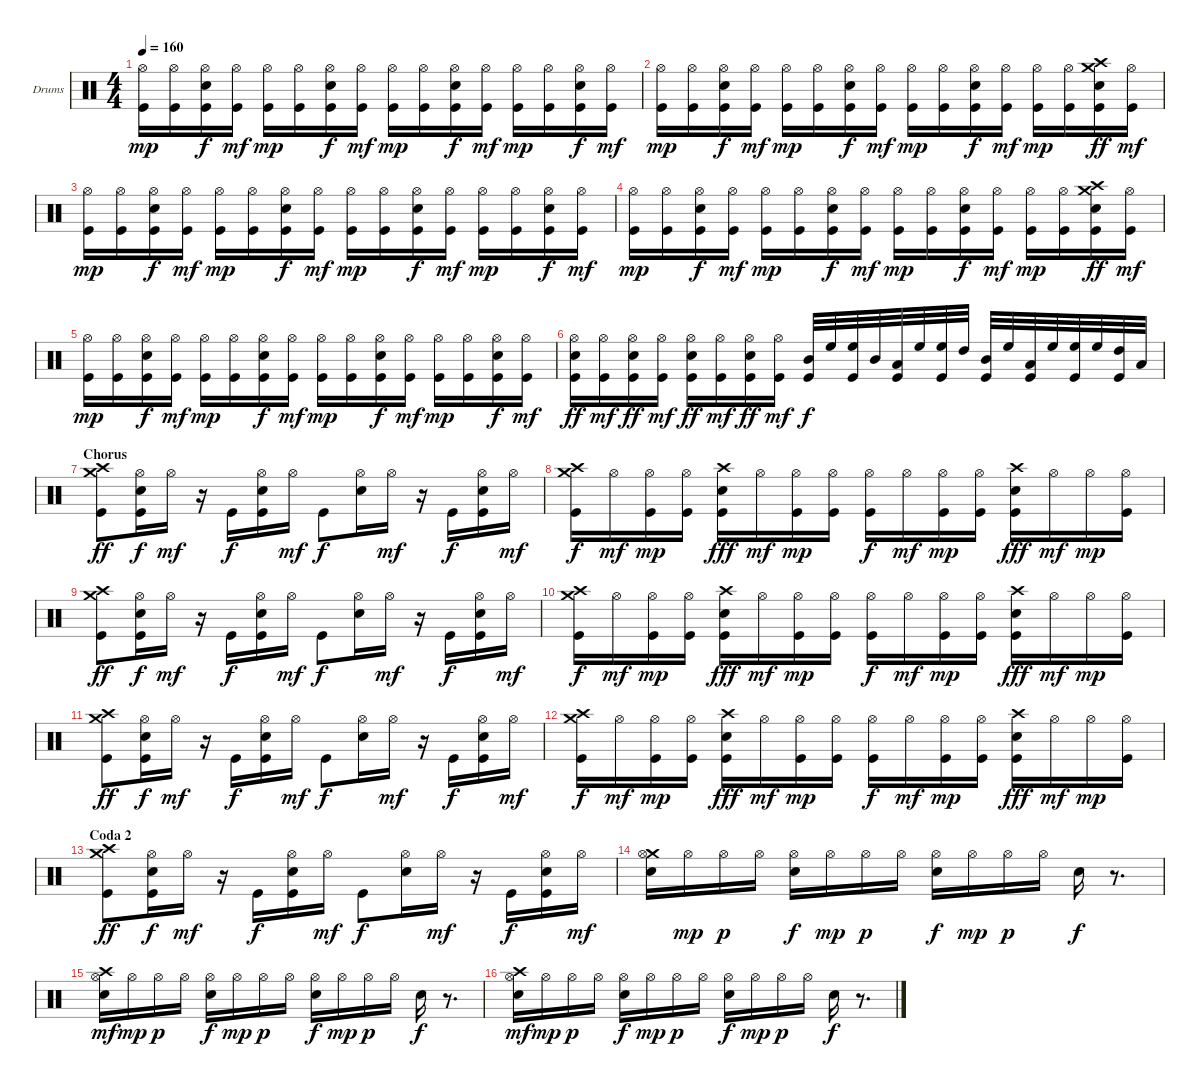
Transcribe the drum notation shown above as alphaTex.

\bracketExtendMode groupsimilarinstruments
\firstSystemTrackNameOrientation horizontal
\otherSystemsTrackNameOrientation horizontal
\track ("Drumkit" "Drums") {instrument percussion}
\staff {score}
\articulation defaults
\ts (4 4)
\tempo 160
\clef neutral
\ks c
("Hi-Hat (open)" "Kick (hit)").16{dy mp} ("Hi-Hat (open)" "Kick (hit)").16 ("Hi-Hat (open)" "Snare (hit) 2" "Kick (hit)").16{dy f} ("Hi-Hat (open)" "Kick (hit)").16{dy mf} ("Hi-Hat (open)" "Kick (hit)").16{dy mp} ("Hi-Hat (open)" "Kick (hit)").16 ("Hi-Hat (open)" "Snare (hit) 2" "Kick (hit)").16{dy f} ("Hi-Hat (open)" "Kick (hit)").16{dy mf} ("Hi-Hat (open)" "Kick (hit)").16{dy mp} ("Hi-Hat (open)" "Kick (hit)").16 ("Hi-Hat (open)" "Snare (hit) 2" "Kick (hit)").16{dy f} ("Hi-Hat (open)" "Kick (hit)").16{dy mf} ("Hi-Hat (open)" "Kick (hit)").16{dy mp} ("Hi-Hat (open)" "Kick (hit)").16 ("Hi-Hat (open)" "Snare (hit) 2" "Kick (hit)").16{dy f} ("Hi-Hat (open)" "Kick (hit)").16{dy mf} |
("Hi-Hat (open)" "Kick (hit)").16{dy mp} ("Hi-Hat (open)" "Kick (hit)").16 ("Hi-Hat (open)" "Snare (hit) 2" "Kick (hit)").16{dy f} ("Hi-Hat (open)" "Kick (hit)").16{dy mf} ("Hi-Hat (open)" "Kick (hit)").16{dy mp} ("Hi-Hat (open)" "Kick (hit)").16 ("Hi-Hat (open)" "Snare (hit) 2" "Kick (hit)").16{dy f} ("Hi-Hat (open)" "Kick (hit)").16{dy mf} ("Hi-Hat (open)" "Kick (hit)").16{dy mp} ("Hi-Hat (open)" "Kick (hit)").16 ("Hi-Hat (open)" "Snare (hit) 2" "Kick (hit)").16{dy f} ("Hi-Hat (open)" "Kick (hit)").16{dy mf} ("Hi-Hat (open)" "Kick (hit)").16{dy mp} ("Hi-Hat (open)" "Kick (hit)").16 ("Crash medium (hit)" "Crash high (hit)" "Snare (hit) 2" "Kick (hit)").16{dy ff} ("Hi-Hat (open)" "Kick (hit)").16{dy mf} |
("Hi-Hat (open)" "Kick (hit)").16{dy mp} ("Hi-Hat (open)" "Kick (hit)").16 ("Hi-Hat (open)" "Snare (hit) 2" "Kick (hit)").16{dy f} ("Hi-Hat (open)" "Kick (hit)").16{dy mf} ("Hi-Hat (open)" "Kick (hit)").16{dy mp} ("Hi-Hat (open)" "Kick (hit)").16 ("Hi-Hat (open)" "Snare (hit) 2" "Kick (hit)").16{dy f} ("Hi-Hat (open)" "Kick (hit)").16{dy mf} ("Hi-Hat (open)" "Kick (hit)").16{dy mp} ("Hi-Hat (open)" "Kick (hit)").16 ("Hi-Hat (open)" "Snare (hit) 2" "Kick (hit)").16{dy f} ("Hi-Hat (open)" "Kick (hit)").16{dy mf} ("Hi-Hat (open)" "Kick (hit)").16{dy mp} ("Hi-Hat (open)" "Kick (hit)").16 ("Hi-Hat (open)" "Snare (hit) 2" "Kick (hit)").16{dy f} ("Hi-Hat (open)" "Kick (hit)").16{dy mf} |
("Hi-Hat (open)" "Kick (hit)").16{dy mp} ("Hi-Hat (open)" "Kick (hit)").16 ("Hi-Hat (open)" "Snare (hit) 2" "Kick (hit)").16{dy f} ("Hi-Hat (open)" "Kick (hit)").16{dy mf} ("Hi-Hat (open)" "Kick (hit)").16{dy mp} ("Hi-Hat (open)" "Kick (hit)").16 ("Hi-Hat (open)" "Snare (hit) 2" "Kick (hit)").16{dy f} ("Hi-Hat (open)" "Kick (hit)").16{dy mf} ("Hi-Hat (open)" "Kick (hit)").16{dy mp} ("Hi-Hat (open)" "Kick (hit)").16 ("Hi-Hat (open)" "Snare (hit) 2" "Kick (hit)").16{dy f} ("Hi-Hat (open)" "Kick (hit)").16{dy mf} ("Hi-Hat (open)" "Kick (hit)").16{dy mp} ("Hi-Hat (open)" "Kick (hit)").16 ("Crash medium (hit)" "Crash high (hit)" "Snare (hit) 2" "Kick (hit)").16{dy ff} ("Hi-Hat (open)" "Kick (hit)").16{dy mf} |
("Hi-Hat (open)" "Kick (hit)").16{dy mp} ("Hi-Hat (open)" "Kick (hit)").16 ("Hi-Hat (open)" "Snare (hit) 2" "Kick (hit)").16{dy f} ("Hi-Hat (open)" "Kick (hit)").16{dy mf} ("Hi-Hat (open)" "Kick (hit)").16{dy mp} ("Hi-Hat (open)" "Kick (hit)").16 ("Hi-Hat (open)" "Snare (hit) 2" "Kick (hit)").16{dy f} ("Hi-Hat (open)" "Kick (hit)").16{dy mf} ("Hi-Hat (open)" "Kick (hit)").16{dy mp} ("Hi-Hat (open)" "Kick (hit)").16 ("Hi-Hat (open)" "Snare (hit) 2" "Kick (hit)").16{dy f} ("Hi-Hat (open)" "Kick (hit)").16{dy mf} ("Hi-Hat (open)" "Kick (hit)").16{dy mp} ("Hi-Hat (open)" "Kick (hit)").16 ("Hi-Hat (open)" "Snare (hit) 2" "Kick (hit)").16{dy f} ("Hi-Hat (open)" "Kick (hit)").16{dy mf} |
("Hi-Hat (open)" "Snare (hit) 2" "Kick (hit)").16{dy ff} ("Hi-Hat (open)" "Kick (hit)").16{dy mf} ("Hi-Hat (open)" "Snare (hit) 2" "Kick (hit)").16{dy ff} ("Hi-Hat (open)" "Kick (hit)").16{dy mf} ("Hi-Hat (open)" "Snare (hit) 2" "Kick (hit)").16{dy ff} ("Hi-Hat (open)" "Kick (hit)").16{dy mf} ("Hi-Hat (open)" "Snare (hit) 2" "Kick (hit)").16{dy ff} ("Hi-Hat (open)" "Kick (hit)").16{dy mf} ("Mid Tom (hit)" "Kick (hit)").32{dy f} "High Floor Tom (hit)".32 ("High Floor Tom (hit)" "Kick (hit)").32 "Mid Tom (hit)".32 ("Low Tom (hit)" "Kick (hit)").32 "High Floor Tom (hit)".32 ("High Floor Tom (hit)" "Kick (hit)").32 "High Tom (hit)".32 ("Mid Tom (hit)" "Kick (hit)").32 "High Floor Tom (hit)".32 ("Low Tom (hit)" "Kick (hit)").32 "High Floor Tom (hit)".32 ("High Floor Tom (hit)" "Kick (hit)").32 "High Floor Tom (hit)".32 ("High Tom (hit)" "Kick (hit)").32 "Low Tom (hit)".32 |
\section ("" "Chorus")
("Crash medium (hit)" "Crash high (hit)" "Kick (hit)").8{dy ff} ("Hi-Hat (open)" "Snare (hit) 2" "Kick (hit)").16{dy f} "Hi-Hat (open)".16{dy mf} r.16 "Kick (hit)".16{dy f} ("Hi-Hat (open)" "Snare (hit) 2" "Kick (hit)").16 "Hi-Hat (open)".16{dy mf} "Kick (hit)".8{dy f} ("Hi-Hat (open)" "Snare (hit) 2").16 "Hi-Hat (open)".16{dy mf} r.16 "Kick (hit)".16{dy f} ("Hi-Hat (open)" "Snare (hit) 2" "Kick (hit)").16 "Hi-Hat (open)".16{dy mf} |
("Crash medium (hit)" "Crash high (hit)" "Kick (hit)").16{dy f} "Hi-Hat (open)".16{dy mf} ("Hi-Hat (open)" "Kick (hit)").16{dy mp} ("Hi-Hat (open)" "Kick (hit)").16 ("Crash high (hit)" "Snare (hit) 2" "Kick (hit)").16{dy fff} "Hi-Hat (open)".16{dy mf} ("Hi-Hat (open)" "Kick (hit)").16{dy mp} ("Hi-Hat (open)" "Kick (hit)").16 ("Hi-Hat (open)" "Kick (hit)").16{dy f} "Hi-Hat (open)".16{dy mf} ("Hi-Hat (open)" "Kick (hit)").16{dy mp} ("Hi-Hat (open)" "Kick (hit)").16 ("Crash high (hit)" "Snare (hit) 2" "Kick (hit)").16{dy fff} "Hi-Hat (open)".16{dy mf} "Hi-Hat (open)".16{dy mp} ("Hi-Hat (open)" "Kick (hit)").16 |
("Crash medium (hit)" "Crash high (hit)" "Kick (hit)").8{dy ff} ("Hi-Hat (open)" "Snare (hit) 2" "Kick (hit)").16{dy f} "Hi-Hat (open)".16{dy mf} r.16 "Kick (hit)".16{dy f} ("Hi-Hat (open)" "Snare (hit) 2" "Kick (hit)").16 "Hi-Hat (open)".16{dy mf} "Kick (hit)".8{dy f} ("Hi-Hat (open)" "Snare (hit) 2").16 "Hi-Hat (open)".16{dy mf} r.16 "Kick (hit)".16{dy f} ("Hi-Hat (open)" "Snare (hit) 2" "Kick (hit)").16 "Hi-Hat (open)".16{dy mf} |
("Crash medium (hit)" "Crash high (hit)" "Kick (hit)").16{dy f} "Hi-Hat (open)".16{dy mf} ("Hi-Hat (open)" "Kick (hit)").16{dy mp} ("Hi-Hat (open)" "Kick (hit)").16 ("Crash high (hit)" "Snare (hit) 2" "Kick (hit)").16{dy fff} "Hi-Hat (open)".16{dy mf} ("Hi-Hat (open)" "Kick (hit)").16{dy mp} ("Hi-Hat (open)" "Kick (hit)").16 ("Hi-Hat (open)" "Kick (hit)").16{dy f} "Hi-Hat (open)".16{dy mf} ("Hi-Hat (open)" "Kick (hit)").16{dy mp} ("Hi-Hat (open)" "Kick (hit)").16 ("Crash high (hit)" "Snare (hit) 2" "Kick (hit)").16{dy fff} "Hi-Hat (open)".16{dy mf} "Hi-Hat (open)".16{dy mp} ("Hi-Hat (open)" "Kick (hit)").16 |
("Crash medium (hit)" "Crash high (hit)" "Kick (hit)").8{dy ff} ("Hi-Hat (open)" "Snare (hit) 2" "Kick (hit)").16{dy f} "Hi-Hat (open)".16{dy mf} r.16 "Kick (hit)".16{dy f} ("Hi-Hat (open)" "Snare (hit) 2" "Kick (hit)").16 "Hi-Hat (open)".16{dy mf} "Kick (hit)".8{dy f} ("Hi-Hat (open)" "Snare (hit) 2").16 "Hi-Hat (open)".16{dy mf} r.16 "Kick (hit)".16{dy f} ("Hi-Hat (open)" "Snare (hit) 2" "Kick (hit)").16 "Hi-Hat (open)".16{dy mf} |
("Crash medium (hit)" "Crash high (hit)" "Kick (hit)").16{dy f} "Hi-Hat (open)".16{dy mf} ("Hi-Hat (open)" "Kick (hit)").16{dy mp} ("Hi-Hat (open)" "Kick (hit)").16 ("Crash high (hit)" "Snare (hit) 2" "Kick (hit)").16{dy fff} "Hi-Hat (open)".16{dy mf} ("Hi-Hat (open)" "Kick (hit)").16{dy mp} ("Hi-Hat (open)" "Kick (hit)").16 ("Hi-Hat (open)" "Kick (hit)").16{dy f} "Hi-Hat (open)".16{dy mf} ("Hi-Hat (open)" "Kick (hit)").16{dy mp} ("Hi-Hat (open)" "Kick (hit)").16 ("Crash high (hit)" "Snare (hit) 2" "Kick (hit)").16{dy fff} "Hi-Hat (open)".16{dy mf} "Hi-Hat (open)".16{dy mp} ("Hi-Hat (open)" "Kick (hit)").16 |
\section ("" "Coda 2")
("Crash medium (hit)" "Crash high (hit)" "Kick (hit)").8{dy ff} ("Hi-Hat (open)" "Snare (hit) 2" "Kick (hit)").16{dy f} "Hi-Hat (open)".16{dy mf} r.16 "Kick (hit)".16{dy f} ("Hi-Hat (open)" "Snare (hit) 2" "Kick (hit)").16 "Hi-Hat (open)".16{dy mf} "Kick (hit)".8{dy f} ("Hi-Hat (open)" "Snare (hit) 2").16 "Hi-Hat (open)".16{dy mf} r.16 "Kick (hit)".16{dy f} ("Hi-Hat (open)" "Snare (hit) 2" "Kick (hit)").16 "Hi-Hat (open)".16{dy mf} |
("Crash medium (hit)" "Hi-Hat (open)" "Snare (hit) 2").16 "Hi-Hat (open)".16{dy mp} "Hi-Hat (open)".16{dy p} "Hi-Hat (open)".16 ("Hi-Hat (open)" "Snare (hit) 2").16{dy f} "Hi-Hat (open)".16{dy mp} "Hi-Hat (open)".16{dy p} "Hi-Hat (open)".16 ("Hi-Hat (open)" "Snare (hit) 2").16{dy f} "Hi-Hat (open)".16{dy mp} "Hi-Hat (open)".16{dy p} "Hi-Hat (open)".16 "Snare (hit) 2".16{dy f} r.8{d} |
("Crash high (hit)" "Hi-Hat (open)" "Snare (hit) 2").16{dy mf} "Hi-Hat (open)".16{dy mp} "Hi-Hat (open)".16{dy p} "Hi-Hat (open)".16 ("Hi-Hat (open)" "Snare (hit) 2").16{dy f} "Hi-Hat (open)".16{dy mp} "Hi-Hat (open)".16{dy p} "Hi-Hat (open)".16 ("Hi-Hat (open)" "Snare (hit) 2").16{dy f} "Hi-Hat (open)".16{dy mp} "Hi-Hat (open)".16{dy p} "Hi-Hat (open)".16 "Snare (hit) 2".16{dy f} r.8{d} |
("Crash high (hit)" "Hi-Hat (open)" "Snare (hit) 2").16{dy mf} "Hi-Hat (open)".16{dy mp} "Hi-Hat (open)".16{dy p} "Hi-Hat (open)".16 ("Hi-Hat (open)" "Snare (hit) 2").16{dy f} "Hi-Hat (open)".16{dy mp} "Hi-Hat (open)".16{dy p} "Hi-Hat (open)".16 ("Hi-Hat (open)" "Snare (hit) 2").16{dy f} "Hi-Hat (open)".16{dy mp} "Hi-Hat (open)".16{dy p} "Hi-Hat (open)".16 "Snare (hit) 2".16{dy f} r.8{d}
